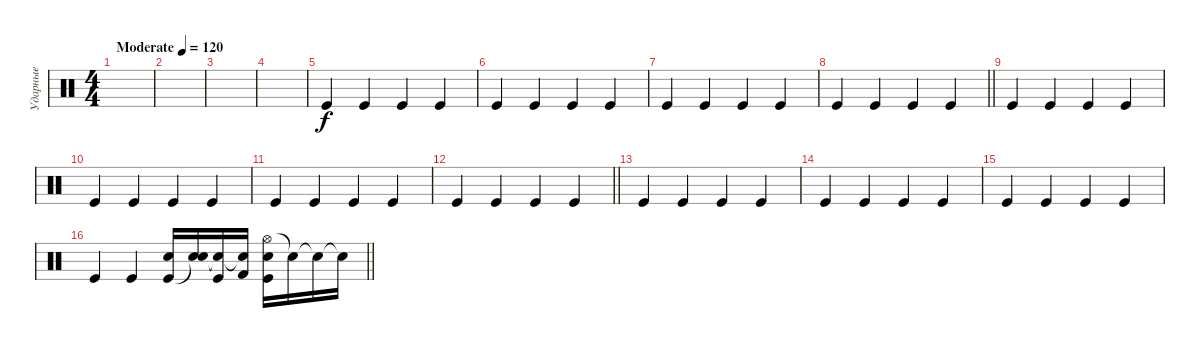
\track ("Ударные" "Ударные") {instrument percussion}
\staff {score}
\articulation defaults
\ts (4 4)
\tempo (120 "Moderate")
\clef neutral
\ks c
|
|
|
|
"Kick (hit)".4 "Kick (hit)".4 "Kick (hit)".4 "Kick (hit)".4 |
"Kick (hit)".4 "Kick (hit)".4 "Kick (hit)".4 "Kick (hit)".4 |
"Kick (hit)".4 "Kick (hit)".4 "Kick (hit)".4 "Kick (hit)".4 |
\barLineRight lightlight "Kick (hit)".4 "Kick (hit)".4 "Kick (hit)".4 "Kick (hit)".4
|
"Kick (hit)".4 "Kick (hit)".4 "Kick (hit)".4 "Kick (hit)".4 |
"Kick (hit)".4 "Kick (hit)".4 "Kick (hit)".4 "Kick (hit)".4 |
"Kick (hit)".4 "Kick (hit)".4 "Kick (hit)".4 "Kick (hit)".4 |
\barLineRight lightlight "Kick (hit)".4 "Kick (hit)".4 "Kick (hit)".4 "Kick (hit)".4
|
"Kick (hit)".4 "Kick (hit)".4 "Kick (hit)".4 "Kick (hit)".4 |
"Kick (hit)".4 "Kick (hit)".4 "Kick (hit)".4 "Kick (hit)".4 |
"Kick (hit)".4 "Kick (hit)".4 "Kick (hit)".4 "Kick (hit)".4 |
\barLineRight lightlight "Kick (hit)".4 "Kick (hit)".4
("Kick (hit)" "Snare (hit) 2").16 ("Snare (hit)"{t} "Snare (hit) 2").16 ("Snare (hit)"{t} "Kick (hit)").16 ("Snare (hit)"{t} "Kick (hit) 2").16 ("Hi-Hat (open)" "Kick (hit)" "Snare (hit) 2").16 "Snare (hit)"{t}.16 "Snare (hit)"{t}.16 "Snare (hit)"{t}.16
